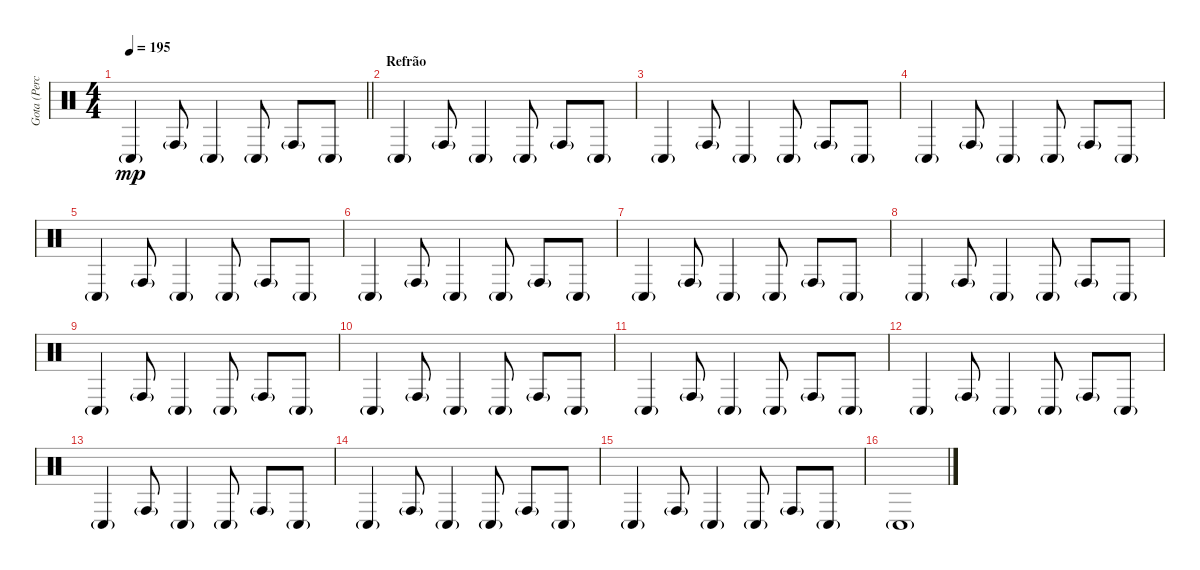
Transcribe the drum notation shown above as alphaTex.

\track ("Gota (Percussion)" "Gota (Perc") {instrument percussion}
\staff {score}
\articulation defaults
\ts (4 4)
\tempo 195
\clef neutral
\barLineRight lightlight
\ks c "Conga low (hit)"{g}.4{dy mp} "Conga high (hit)"{g}.8 "Conga low (hit)"{g}.4 "Conga low (hit)"{g}.8 "Conga high (hit)"{g}.8 "Conga low (hit)"{g}.8
|
\section ("" "Refrão")
"Conga low (hit)"{g}.4 "Conga high (hit)"{g}.8 "Conga low (hit)"{g}.4 "Conga low (hit)"{g}.8 "Conga high (hit)"{g}.8 "Conga low (hit)"{g}.8 |
"Conga low (hit)"{g}.4 "Conga high (hit)"{g}.8 "Conga low (hit)"{g}.4 "Conga low (hit)"{g}.8 "Conga high (hit)"{g}.8 "Conga low (hit)"{g}.8 |
"Conga low (hit)"{g}.4 "Conga high (hit)"{g}.8 "Conga low (hit)"{g}.4 "Conga low (hit)"{g}.8 "Conga high (hit)"{g}.8 "Conga low (hit)"{g}.8 |
"Conga low (hit)"{g}.4 "Conga high (hit)"{g}.8 "Conga low (hit)"{g}.4 "Conga low (hit)"{g}.8 "Conga high (hit)"{g}.8 "Conga low (hit)"{g}.8 |
"Conga low (hit)"{g}.4 "Conga high (hit)"{g}.8 "Conga low (hit)"{g}.4 "Conga low (hit)"{g}.8 "Conga high (hit)"{g}.8 "Conga low (hit)"{g}.8 |
"Conga low (hit)"{g}.4 "Conga high (hit)"{g}.8 "Conga low (hit)"{g}.4 "Conga low (hit)"{g}.8 "Conga high (hit)"{g}.8 "Conga low (hit)"{g}.8 |
"Conga low (hit)"{g}.4 "Conga high (hit)"{g}.8 "Conga low (hit)"{g}.4 "Conga low (hit)"{g}.8 "Conga high (hit)"{g}.8 "Conga low (hit)"{g}.8 |
"Conga low (hit)"{g}.4 "Conga high (hit)"{g}.8 "Conga low (hit)"{g}.4 "Conga low (hit)"{g}.8 "Conga high (hit)"{g}.8 "Conga low (hit)"{g}.8 |
"Conga low (hit)"{g}.4 "Conga high (hit)"{g}.8 "Conga low (hit)"{g}.4 "Conga low (hit)"{g}.8 "Conga high (hit)"{g}.8 "Conga low (hit)"{g}.8 |
"Conga low (hit)"{g}.4 "Conga high (hit)"{g}.8 "Conga low (hit)"{g}.4 "Conga low (hit)"{g}.8 "Conga high (hit)"{g}.8 "Conga low (hit)"{g}.8 |
"Conga low (hit)"{g}.4 "Conga high (hit)"{g}.8 "Conga low (hit)"{g}.4 "Conga low (hit)"{g}.8 "Conga high (hit)"{g}.8 "Conga low (hit)"{g}.8 |
"Conga low (hit)"{g}.4 "Conga high (hit)"{g}.8 "Conga low (hit)"{g}.4 "Conga low (hit)"{g}.8 "Conga high (hit)"{g}.8 "Conga low (hit)"{g}.8 |
"Conga low (hit)"{g}.4 "Conga high (hit)"{g}.8 "Conga low (hit)"{g}.4 "Conga low (hit)"{g}.8 "Conga high (hit)"{g}.8 "Conga low (hit)"{g}.8 |
"Conga low (hit)"{g}.4 "Conga high (hit)"{g}.8 "Conga low (hit)"{g}.4 "Conga low (hit)"{g}.8 "Conga high (hit)"{g}.8 "Conga low (hit)"{g}.8 |
"Conga low (hit)"{g}.1
